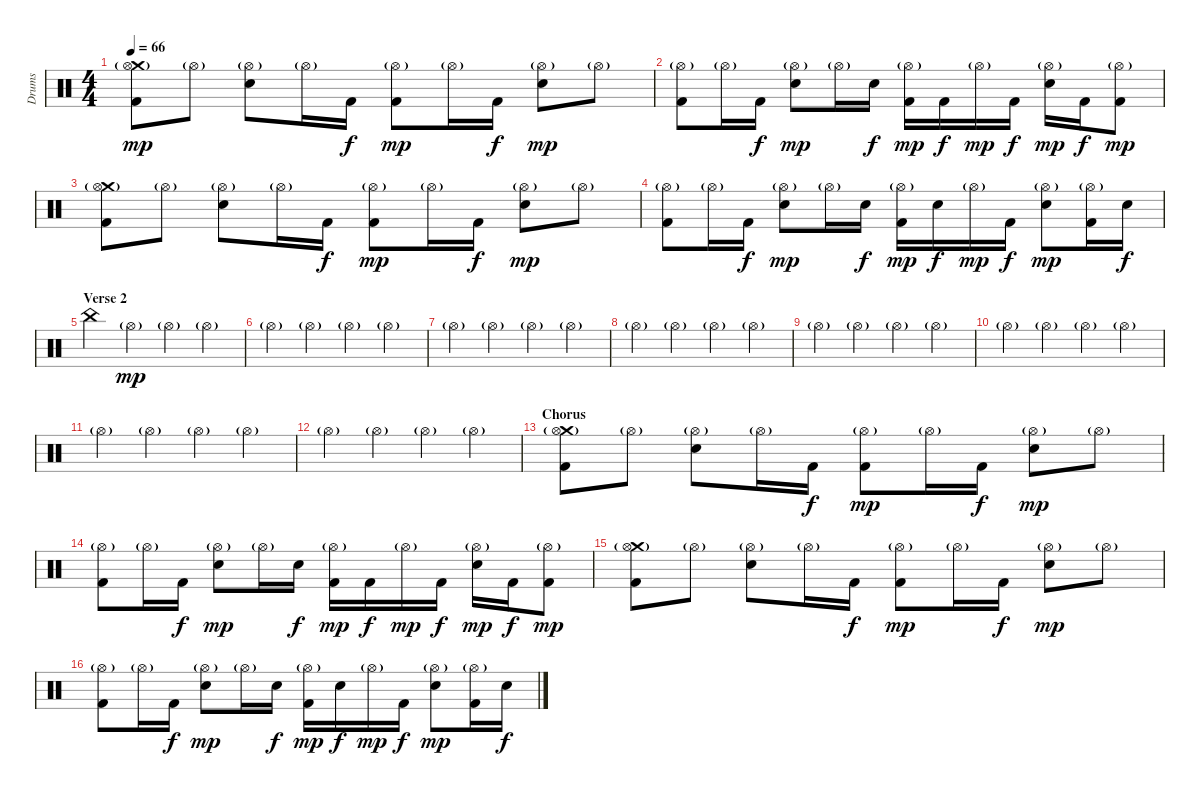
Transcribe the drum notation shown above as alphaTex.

\track ("Drums" "Drums") {instrument percussion}
\staff {score}
\articulation defaults
\ts (4 4)
\tempo 66
\clef neutral
\ks c
("Crash medium (hit)" "Hi-Hat (open)"{g} "Kick (hit) 2").8{dy mp} "Hi-Hat (open)"{g}.8 ("Electric Snare (hit)" "Hi-Hat (open)"{g}).8 "Hi-Hat (open)"{g}.16 "Kick (hit) 2".16{dy f} ("Hi-Hat (open)"{g} "Kick (hit) 2").8{dy mp} "Hi-Hat (open)"{g}.16 "Kick (hit) 2".16{dy f} ("Electric Snare (hit)" "Hi-Hat (open)"{g}).8{dy mp} "Hi-Hat (open)"{g}.8 |
("Hi-Hat (open)"{g} "Kick (hit) 2").8 "Hi-Hat (open)"{g}.16 "Kick (hit) 2".16{dy f} ("Electric Snare (hit)" "Hi-Hat (open)"{g}).8{dy mp} "Hi-Hat (open)"{g}.16 "Electric Snare (hit)".16{dy f} ("Hi-Hat (open)"{g} "Kick (hit) 2").16{dy mp} "Kick (hit) 2".16{dy f} "Hi-Hat (open)"{g}.16{dy mp} "Kick (hit) 2".16{dy f} ("Electric Snare (hit)" "Hi-Hat (open)"{g}).16{dy mp} "Kick (hit) 2".16{dy f} ("Hi-Hat (open)"{g} "Kick (hit) 2").8{dy mp} |
("Crash medium (hit)" "Hi-Hat (open)"{g} "Kick (hit) 2").8 "Hi-Hat (open)"{g}.8 ("Electric Snare (hit)" "Hi-Hat (open)"{g}).8 "Hi-Hat (open)"{g}.16 "Kick (hit) 2".16{dy f} ("Hi-Hat (open)"{g} "Kick (hit) 2").8{dy mp} "Hi-Hat (open)"{g}.16 "Kick (hit) 2".16{dy f} ("Electric Snare (hit)" "Hi-Hat (open)"{g}).8{dy mp} "Hi-Hat (open)"{g}.8 |
("Hi-Hat (open)"{g} "Kick (hit) 2").8 "Hi-Hat (open)"{g}.16 "Kick (hit) 2".16{dy f} ("Electric Snare (hit)" "Hi-Hat (open)"{g}).8{dy mp} "Hi-Hat (open)"{g}.16 "Electric Snare (hit)".16{dy f} ("Hi-Hat (open)"{g} "Kick (hit) 2").16{dy mp} "Electric Snare (hit)".16{dy f} "Hi-Hat (open)"{g}.16{dy mp} "Kick (hit) 2".16{dy f} ("Electric Snare (hit)" "Hi-Hat (open)"{g}).8{dy mp} ("Hi-Hat (open)"{g} "Kick (hit) 2").16 "Electric Snare (hit)".16{dy f} |
\section ("" "Verse 2")
"China (hit)".4 "Hi-Hat (open)"{g}.4{dy mp volume 6} "Hi-Hat (open)"{g}.4 "Hi-Hat (open)"{g}.4 |
"Hi-Hat (open)"{g}.4 "Hi-Hat (open)"{g}.4 "Hi-Hat (open)"{g}.4 "Hi-Hat (open)"{g}.4 |
"Hi-Hat (open)"{g}.4 "Hi-Hat (open)"{g}.4 "Hi-Hat (open)"{g}.4 "Hi-Hat (open)"{g}.4 |
"Hi-Hat (open)"{g}.4 "Hi-Hat (open)"{g}.4 "Hi-Hat (open)"{g}.4 "Hi-Hat (open)"{g}.4 |
"Hi-Hat (open)"{g}.4 "Hi-Hat (open)"{g}.4 "Hi-Hat (open)"{g}.4 "Hi-Hat (open)"{g}.4 |
"Hi-Hat (open)"{g}.4 "Hi-Hat (open)"{g}.4 "Hi-Hat (open)"{g}.4 "Hi-Hat (open)"{g}.4 |
"Hi-Hat (open)"{g}.4 "Hi-Hat (open)"{g}.4 "Hi-Hat (open)"{g}.4 "Hi-Hat (open)"{g}.4 |
"Hi-Hat (open)"{g}.4 "Hi-Hat (open)"{g}.4 "Hi-Hat (open)"{g}.4 "Hi-Hat (open)"{g}.4 |
\section ("" "Chorus")
("Crash medium (hit)" "Hi-Hat (open)"{g} "Kick (hit) 2").8{volume 12} "Hi-Hat (open)"{g}.8 ("Electric Snare (hit)" "Hi-Hat (open)"{g}).8 "Hi-Hat (open)"{g}.16 "Kick (hit) 2".16{dy f} ("Hi-Hat (open)"{g} "Kick (hit) 2").8{dy mp} "Hi-Hat (open)"{g}.16 "Kick (hit) 2".16{dy f} ("Electric Snare (hit)" "Hi-Hat (open)"{g}).8{dy mp} "Hi-Hat (open)"{g}.8 |
("Hi-Hat (open)"{g} "Kick (hit) 2").8 "Hi-Hat (open)"{g}.16 "Kick (hit) 2".16{dy f} ("Electric Snare (hit)" "Hi-Hat (open)"{g}).8{dy mp} "Hi-Hat (open)"{g}.16 "Electric Snare (hit)".16{dy f} ("Hi-Hat (open)"{g} "Kick (hit) 2").16{dy mp} "Kick (hit) 2".16{dy f} "Hi-Hat (open)"{g}.16{dy mp} "Kick (hit) 2".16{dy f} ("Electric Snare (hit)" "Hi-Hat (open)"{g}).16{dy mp} "Kick (hit) 2".16{dy f} ("Hi-Hat (open)"{g} "Kick (hit) 2").8{dy mp} |
("Crash medium (hit)" "Hi-Hat (open)"{g} "Kick (hit) 2").8 "Hi-Hat (open)"{g}.8 ("Electric Snare (hit)" "Hi-Hat (open)"{g}).8 "Hi-Hat (open)"{g}.16 "Kick (hit) 2".16{dy f} ("Hi-Hat (open)"{g} "Kick (hit) 2").8{dy mp} "Hi-Hat (open)"{g}.16 "Kick (hit) 2".16{dy f} ("Electric Snare (hit)" "Hi-Hat (open)"{g}).8{dy mp} "Hi-Hat (open)"{g}.8 |
("Hi-Hat (open)"{g} "Kick (hit) 2").8 "Hi-Hat (open)"{g}.16 "Kick (hit) 2".16{dy f} ("Electric Snare (hit)" "Hi-Hat (open)"{g}).8{dy mp} "Hi-Hat (open)"{g}.16 "Electric Snare (hit)".16{dy f} ("Hi-Hat (open)"{g} "Kick (hit) 2").16{dy mp} "Electric Snare (hit)".16{dy f} "Hi-Hat (open)"{g}.16{dy mp} "Kick (hit) 2".16{dy f} ("Electric Snare (hit)" "Hi-Hat (open)"{g}).8{dy mp} ("Hi-Hat (open)"{g} "Kick (hit) 2").16 "Electric Snare (hit)".16{dy f}
